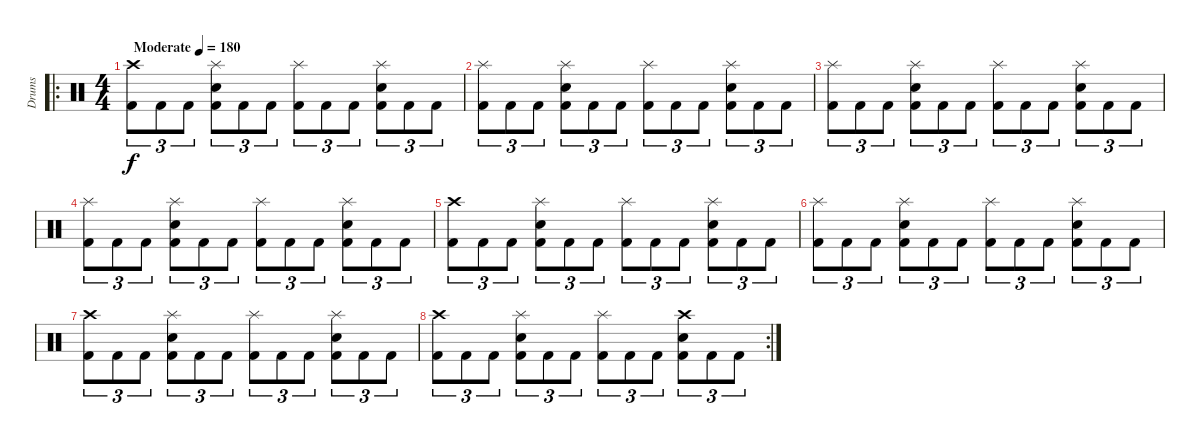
\track ("Drums" "Drums") {instrument percussion}
\staff {score}
\articulation defaults
\ro
\ts (4 4)
\section ("" "")
\tempo (180 "Moderate")
\clef neutral
\ks c
("Crash high (hit)" "Kick (hit) 2").8{tu (3 2) dy f} "Kick (hit) 2".8{tu (3 2)} "Kick (hit) 2".8{tu (3 2)} ("Snare (hit) 2" "Splash (hit)" "Kick (hit) 2").8{tu (3 2)} "Kick (hit) 2".8{tu (3 2)} "Kick (hit) 2".8{tu (3 2)} ("Splash (hit)" "Kick (hit) 2").8{tu (3 2)} "Kick (hit) 2".8{tu (3 2)} "Kick (hit) 2".8{tu (3 2)} ("Snare (hit) 2" "Splash (hit)" "Kick (hit) 2").8{tu (3 2)} "Kick (hit) 2".8{tu (3 2)} "Kick (hit) 2".8{tu (3 2)} |
("Splash (hit)" "Kick (hit) 2").8{tu (3 2)} "Kick (hit) 2".8{tu (3 2)} "Kick (hit) 2".8{tu (3 2)} ("Snare (hit) 2" "Splash (hit)" "Kick (hit) 2").8{tu (3 2)} "Kick (hit) 2".8{tu (3 2)} "Kick (hit) 2".8{tu (3 2)} ("Splash (hit)" "Kick (hit) 2").8{tu (3 2)} "Kick (hit) 2".8{tu (3 2)} "Kick (hit) 2".8{tu (3 2)} ("Snare (hit) 2" "Splash (hit)" "Kick (hit) 2").8{tu (3 2)} "Kick (hit) 2".8{tu (3 2)} "Kick (hit) 2".8{tu (3 2)} |
("Splash (hit)" "Kick (hit) 2").8{tu (3 2)} "Kick (hit) 2".8{tu (3 2)} "Kick (hit) 2".8{tu (3 2)} ("Snare (hit) 2" "Splash (hit)" "Kick (hit) 2").8{tu (3 2)} "Kick (hit) 2".8{tu (3 2)} "Kick (hit) 2".8{tu (3 2)} ("Splash (hit)" "Kick (hit) 2").8{tu (3 2)} "Kick (hit) 2".8{tu (3 2)} "Kick (hit) 2".8{tu (3 2)} ("Snare (hit) 2" "Splash (hit)" "Kick (hit) 2").8{tu (3 2)} "Kick (hit) 2".8{tu (3 2)} "Kick (hit) 2".8{tu (3 2)} |
("Splash (hit)" "Kick (hit) 2").8{tu (3 2)} "Kick (hit) 2".8{tu (3 2)} "Kick (hit) 2".8{tu (3 2)} ("Snare (hit) 2" "Splash (hit)" "Kick (hit) 2").8{tu (3 2)} "Kick (hit) 2".8{tu (3 2)} "Kick (hit) 2".8{tu (3 2)} ("Splash (hit)" "Kick (hit) 2").8{tu (3 2)} "Kick (hit) 2".8{tu (3 2)} "Kick (hit) 2".8{tu (3 2)} ("Snare (hit) 2" "Splash (hit)" "Kick (hit) 2").8{tu (3 2)} "Kick (hit) 2".8{tu (3 2)} "Kick (hit) 2".8{tu (3 2)} |
("Crash high (hit)" "Kick (hit) 2").8{tu (3 2)} "Kick (hit) 2".8{tu (3 2)} "Kick (hit) 2".8{tu (3 2)} ("Snare (hit) 2" "Splash (hit)" "Kick (hit) 2").8{tu (3 2)} "Kick (hit) 2".8{tu (3 2)} "Kick (hit) 2".8{tu (3 2)} ("Splash (hit)" "Kick (hit) 2").8{tu (3 2)} "Kick (hit) 2".8{tu (3 2)} "Kick (hit) 2".8{tu (3 2)} ("Snare (hit) 2" "Splash (hit)" "Kick (hit) 2").8{tu (3 2)} "Kick (hit) 2".8{tu (3 2)} "Kick (hit) 2".8{tu (3 2)} |
("Splash (hit)" "Kick (hit) 2").8{tu (3 2)} "Kick (hit) 2".8{tu (3 2)} "Kick (hit) 2".8{tu (3 2)} ("Snare (hit) 2" "Splash (hit)" "Kick (hit) 2").8{tu (3 2)} "Kick (hit) 2".8{tu (3 2)} "Kick (hit) 2".8{tu (3 2)} ("Splash (hit)" "Kick (hit) 2").8{tu (3 2)} "Kick (hit) 2".8{tu (3 2)} "Kick (hit) 2".8{tu (3 2)} ("Snare (hit) 2" "Splash (hit)" "Kick (hit) 2").8{tu (3 2)} "Kick (hit) 2".8{tu (3 2)} "Kick (hit) 2".8{tu (3 2)} |
("Crash high (hit)" "Kick (hit) 2").8{tu (3 2)} "Kick (hit) 2".8{tu (3 2)} "Kick (hit) 2".8{tu (3 2)} ("Snare (hit) 2" "Splash (hit)" "Kick (hit) 2").8{tu (3 2)} "Kick (hit) 2".8{tu (3 2)} "Kick (hit) 2".8{tu (3 2)} ("Splash (hit)" "Kick (hit) 2").8{tu (3 2)} "Kick (hit) 2".8{tu (3 2)} "Kick (hit) 2".8{tu (3 2)} ("Snare (hit) 2" "Splash (hit)" "Kick (hit) 2").8{tu (3 2)} "Kick (hit) 2".8{tu (3 2)} "Kick (hit) 2".8{tu (3 2)} |
\rc 2
("Crash high (hit)" "Kick (hit) 2").8{tu (3 2)} "Kick (hit) 2".8{tu (3 2)} "Kick (hit) 2".8{tu (3 2)} ("Snare (hit) 2" "Splash (hit)" "Kick (hit) 2").8{tu (3 2)} "Kick (hit) 2".8{tu (3 2)} "Kick (hit) 2".8{tu (3 2)} ("Splash (hit)" "Kick (hit) 2").8{tu (3 2)} "Kick (hit) 2".8{tu (3 2)} "Kick (hit) 2".8{tu (3 2)} ("Snare (hit) 2" "Crash high (hit)" "Kick (hit) 2").8{tu (3 2)} "Kick (hit) 2".8{tu (3 2)} "Kick (hit) 2".8{tu (3 2)}
